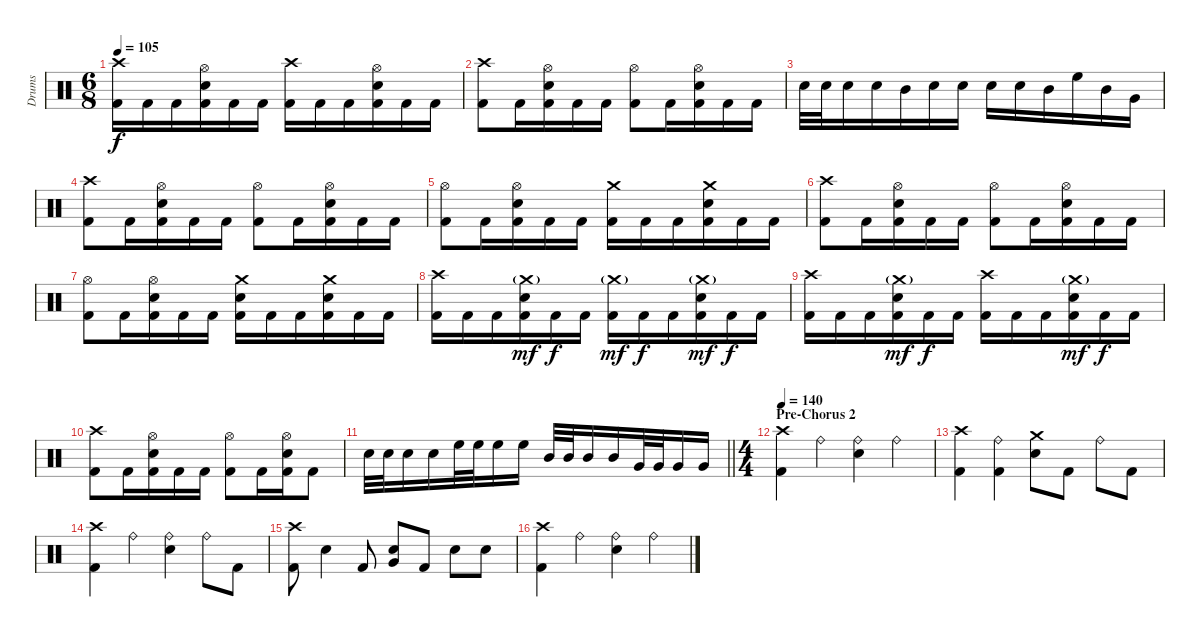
\track ("Drums" "Drums") {instrument percussion}
\staff {score}
\articulation defaults
\ts (6 8)
\tempo 105
\clef neutral
\ks c
("Crash high (hit)" "Kick (hit) 2").16{dy f} "Kick (hit) 2".16 "Kick (hit) 2".16 ("Hi-Hat (open)" "Electric Snare (hit)" "Kick (hit) 2").16 "Kick (hit) 2".16 "Kick (hit) 2".16 ("Crash high (hit)" "Kick (hit) 2").16 "Kick (hit) 2".16 "Kick (hit) 2".16 ("Hi-Hat (open)" "Electric Snare (hit)" "Kick (hit) 2").16 "Kick (hit) 2".16 "Kick (hit) 2".16 |
("Crash high (hit)" "Kick (hit) 2").8 "Kick (hit) 2".16 ("Hi-Hat (open)" "Electric Snare (hit)" "Kick (hit) 2").16 "Kick (hit) 2".16 "Kick (hit) 2".16 ("Hi-Hat (open)" "Kick (hit) 2").8 "Kick (hit) 2".16 ("Hi-Hat (open)" "Electric Snare (hit)" "Kick (hit) 2").16 "Kick (hit) 2".16 "Kick (hit) 2".16 |
"Electric Snare (hit)".32 "Electric Snare (hit)".32 "Electric Snare (hit)".16 "Electric Snare (hit)".16 "Mid Tom (hit)".16 "Electric Snare (hit)".16 "Electric Snare (hit)".16 "Electric Snare (hit)".16 "Electric Snare (hit)".16 "Mid Tom (hit)".16 "High Floor Tom (hit)".16 "Mid Tom (hit)".16 "Very Low Tom (hit)".16 |
("Crash high (hit)" "Kick (hit) 2").8 "Kick (hit) 2".16 ("Hi-Hat (open)" "Electric Snare (hit)" "Kick (hit) 2").16 "Kick (hit) 2".16 "Kick (hit) 2".16 ("Hi-Hat (open)" "Kick (hit) 2").8 "Kick (hit) 2".16 ("Hi-Hat (open)" "Electric Snare (hit)" "Kick (hit) 2").16 "Kick (hit) 2".16 "Kick (hit) 2".16 |
("Hi-Hat (open)" "Kick (hit) 2").8 "Kick (hit) 2".16 ("Hi-Hat (open)" "Electric Snare (hit)" "Kick (hit) 2").16 "Kick (hit) 2".16 "Kick (hit) 2".16 ("Crash medium (hit)" "Kick (hit) 2").16 "Kick (hit) 2".16 "Kick (hit) 2".16 ("Crash medium (hit)" "Electric Snare (hit)" "Kick (hit) 2").16 "Kick (hit) 2".16 "Kick (hit) 2".16 |
("Crash high (hit)" "Kick (hit) 2").8 "Kick (hit) 2".16 ("Hi-Hat (open)" "Electric Snare (hit)" "Kick (hit) 2").16 "Kick (hit) 2".16 "Kick (hit) 2".16 ("Hi-Hat (open)" "Kick (hit) 2").8 "Kick (hit) 2".16 ("Hi-Hat (open)" "Electric Snare (hit)" "Kick (hit) 2").16 "Kick (hit) 2".16 "Kick (hit) 2".16 |
("Hi-Hat (open)" "Kick (hit) 2").8 "Kick (hit) 2".16 ("Hi-Hat (open)" "Electric Snare (hit)" "Kick (hit) 2").16 "Kick (hit) 2".16 "Kick (hit) 2".16 ("Crash medium (hit)" "Electric Snare (hit)" "Kick (hit) 2").16 "Kick (hit) 2".16 "Kick (hit) 2".16 ("Crash medium (hit)" "Electric Snare (hit)" "Kick (hit) 2").16 "Kick (hit) 2".16 "Kick (hit) 2".16 |
("Crash high (hit)" "Kick (hit) 2").16 "Kick (hit) 2".16 "Kick (hit) 2".16 ("Crash medium (hit)"{g} "Electric Snare (hit)" "Kick (hit) 2").16{dy mf} "Kick (hit) 2".16{dy f} "Kick (hit) 2".16 ("Crash medium (hit)"{g} "Kick (hit) 2").16{dy mf} "Kick (hit) 2".16{dy f} "Kick (hit) 2".16 ("Crash medium (hit)"{g} "Electric Snare (hit)" "Kick (hit) 2").16{dy mf} "Kick (hit) 2".16{dy f} "Kick (hit) 2".16 |
("Crash high (hit)" "Kick (hit) 2").16 "Kick (hit) 2".16 "Kick (hit) 2".16 ("Crash medium (hit)"{g} "Electric Snare (hit)" "Kick (hit) 2").16{dy mf} "Kick (hit) 2".16{dy f} "Kick (hit) 2".16 ("Crash high (hit)" "Kick (hit) 2").16 "Kick (hit) 2".16 "Kick (hit) 2".16 ("Crash medium (hit)"{g} "Electric Snare (hit)" "Kick (hit) 2").16{dy mf} "Kick (hit) 2".16{dy f} "Kick (hit) 2".16 |
("Crash high (hit)" "Kick (hit) 2").8 "Kick (hit) 2".16 ("Hi-Hat (open)" "Electric Snare (hit)" "Kick (hit) 2").16 "Kick (hit) 2".16 "Kick (hit) 2".16 ("Hi-Hat (open)" "Kick (hit) 2").8 "Kick (hit) 2".16 ("Hi-Hat (open)" "Electric Snare (hit)" "Kick (hit) 2").16 "Kick (hit) 2".8 |
\barLineRight lightlight "Electric Snare (hit)".32 "Electric Snare (hit)".32 "Electric Snare (hit)".16 "Electric Snare (hit)".16 "High Floor Tom (hit)".32 "High Floor Tom (hit)".32 "High Floor Tom (hit)".16 "High Floor Tom (hit)".16 "Mid Tom (hit)".32 "Mid Tom (hit)".32 "Mid Tom (hit)".16 "Mid Tom (hit)".16 "Very Low Tom (hit)".32 "Very Low Tom (hit)".32 "Very Low Tom (hit)".16 "Very Low Tom (hit)".16
|
\ts (4 4)
\section ("" "Pre-Chorus 2")
\tempo 140
("Crash high (hit)" "Kick (hit) 2").4 "Ride (bell)".4 ("Ride (bell)" "Electric Snare (hit)").4 "Ride (bell)".4 |
("Crash high (hit)" "Kick (hit) 2").4 ("Ride (bell)" "Kick (hit) 2").4 ("Crash medium (hit)" "Electric Snare (hit)").8 "Kick (hit) 2".8 "Ride (bell)".8 "Kick (hit) 2".8 |
("Crash high (hit)" "Kick (hit) 2").4 "Ride (bell)".4 ("Ride (bell)" "Electric Snare (hit)").4 "Ride (bell)".8 "Kick (hit) 2".8 |
("Crash high (hit)" "Kick (hit) 2").8 "Electric Snare (hit)".4 "Kick (hit) 2".8 ("Very Low Tom (hit)" "Electric Snare (hit)").8 "Kick (hit) 2".8 "Electric Snare (hit)".8 "Electric Snare (hit)".8 |
("Crash high (hit)" "Kick (hit) 2").4 "Ride (bell)".4 ("Ride (bell)" "Electric Snare (hit)").4 "Ride (bell)".4
